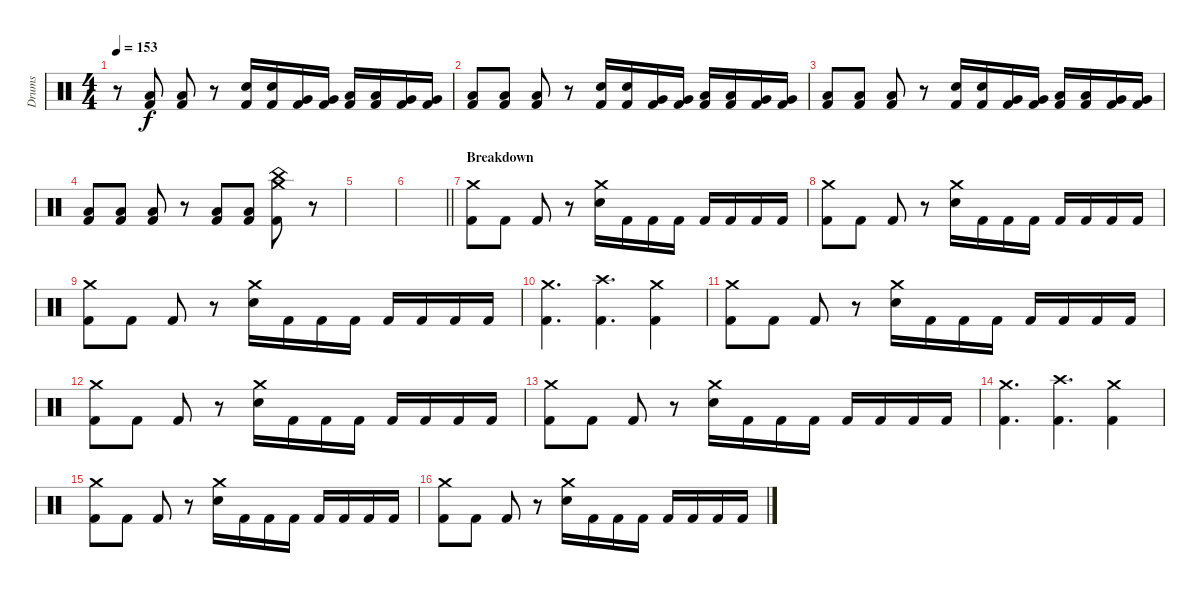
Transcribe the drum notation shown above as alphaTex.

\track ("Drums" "Drums") {instrument percussion}
\staff {score}
\articulation defaults
\ts (4 4)
\tempo 153
\clef neutral
\ks c
r.8{dy f} ("Low Floor Tom (hit)" "Kick (hit) 2").8 ("Low Floor Tom (hit)" "Kick (hit) 2").8 r.8 ("Electric Snare (hit)" "Kick (hit) 2").16 ("Electric Snare (hit)" "Kick (hit) 2").16 ("Very Low Tom (hit)" "Kick (hit) 2").16 ("Very Low Tom (hit)" "Kick (hit) 2").16 ("Low Tom (hit)" "Kick (hit) 2").16 ("Low Tom (hit)" "Kick (hit) 2").16 ("Very Low Tom (hit)" "Kick (hit) 2").16 ("Very Low Tom (hit)" "Kick (hit) 2").16 |
("Low Floor Tom (hit)" "Kick (hit) 2").8 ("Low Floor Tom (hit)" "Kick (hit) 2").8 ("Low Floor Tom (hit)" "Kick (hit) 2").8 r.8 ("Electric Snare (hit)" "Kick (hit) 2").16 ("Electric Snare (hit)" "Kick (hit) 2").16 ("Very Low Tom (hit)" "Kick (hit) 2").16 ("Very Low Tom (hit)" "Kick (hit) 2").16 ("Low Tom (hit)" "Kick (hit) 2").16 ("Low Tom (hit)" "Kick (hit) 2").16 ("Very Low Tom (hit)" "Kick (hit) 2").16 ("Very Low Tom (hit)" "Kick (hit) 2").16 |
("Low Floor Tom (hit)" "Kick (hit) 2").8 ("Low Floor Tom (hit)" "Kick (hit) 2").8 ("Low Floor Tom (hit)" "Kick (hit) 2").8 r.8 ("Electric Snare (hit)" "Kick (hit) 2").16 ("Electric Snare (hit)" "Kick (hit) 2").16 ("Very Low Tom (hit)" "Kick (hit) 2").16 ("Very Low Tom (hit)" "Kick (hit) 2").16 ("Low Tom (hit)" "Kick (hit) 2").16 ("Low Tom (hit)" "Kick (hit) 2").16 ("Very Low Tom (hit)" "Kick (hit) 2").16 ("Very Low Tom (hit)" "Kick (hit) 2").16 |
("Low Floor Tom (hit)" "Kick (hit) 2").8 ("Low Floor Tom (hit)" "Kick (hit) 2").8 ("Low Floor Tom (hit)" "Kick (hit) 2").8 r.8 ("Low Floor Tom (hit)" "Kick (hit) 2").8 ("Low Floor Tom (hit)" "Kick (hit) 2").8 ("China (hit)" "Crash medium (hit)" "Kick (hit) 2").8 r.8 |
|
\barLineRight lightlight
|
\section ("" "Breakdown")
("Crash medium (hit)" "Kick (hit) 2").8{volume 14} "Kick (hit) 2".8 "Kick (hit) 2".8 r.8 ("Crash medium (hit)" "Electric Snare (hit)").16 "Kick (hit) 2".16 "Kick (hit) 2".16 "Kick (hit) 2".16 "Kick (hit) 2".16 "Kick (hit) 2".16 "Kick (hit) 2".16 "Kick (hit) 2".16 |
("Crash medium (hit)" "Kick (hit) 2").8 "Kick (hit) 2".8 "Kick (hit) 2".8 r.8 ("Crash medium (hit)" "Electric Snare (hit)").16 "Kick (hit) 2".16 "Kick (hit) 2".16 "Kick (hit) 2".16 "Kick (hit) 2".16 "Kick (hit) 2".16 "Kick (hit) 2".16 "Kick (hit) 2".16 |
("Crash medium (hit)" "Kick (hit) 2").8 "Kick (hit) 2".8 "Kick (hit) 2".8 r.8 ("Crash medium (hit)" "Electric Snare (hit)").16 "Kick (hit) 2".16 "Kick (hit) 2".16 "Kick (hit) 2".16 "Kick (hit) 2".16 "Kick (hit) 2".16 "Kick (hit) 2".16 "Kick (hit) 2".16 |
("Crash medium (hit)" "Kick (hit) 2").4{d} ("Crash high (hit)" "Kick (hit) 2").4{d} ("Crash medium (hit)" "Kick (hit) 2").4 |
("Crash medium (hit)" "Kick (hit) 2").8 "Kick (hit) 2".8 "Kick (hit) 2".8 r.8 ("Crash medium (hit)" "Electric Snare (hit)").16 "Kick (hit) 2".16 "Kick (hit) 2".16 "Kick (hit) 2".16 "Kick (hit) 2".16 "Kick (hit) 2".16 "Kick (hit) 2".16 "Kick (hit) 2".16 |
("Crash medium (hit)" "Kick (hit) 2").8 "Kick (hit) 2".8 "Kick (hit) 2".8 r.8 ("Crash medium (hit)" "Electric Snare (hit)").16 "Kick (hit) 2".16 "Kick (hit) 2".16 "Kick (hit) 2".16 "Kick (hit) 2".16 "Kick (hit) 2".16 "Kick (hit) 2".16 "Kick (hit) 2".16 |
("Crash medium (hit)" "Kick (hit) 2").8 "Kick (hit) 2".8 "Kick (hit) 2".8 r.8 ("Crash medium (hit)" "Electric Snare (hit)").16 "Kick (hit) 2".16 "Kick (hit) 2".16 "Kick (hit) 2".16 "Kick (hit) 2".16 "Kick (hit) 2".16 "Kick (hit) 2".16 "Kick (hit) 2".16 |
("Crash medium (hit)" "Kick (hit) 2").4{d} ("Crash high (hit)" "Kick (hit) 2").4{d} ("Crash medium (hit)" "Kick (hit) 2").4 |
("Crash medium (hit)" "Kick (hit) 2").8 "Kick (hit) 2".8 "Kick (hit) 2".8 r.8 ("Crash medium (hit)" "Electric Snare (hit)").16 "Kick (hit) 2".16 "Kick (hit) 2".16 "Kick (hit) 2".16 "Kick (hit) 2".16 "Kick (hit) 2".16 "Kick (hit) 2".16 "Kick (hit) 2".16 |
("Crash medium (hit)" "Kick (hit) 2").8 "Kick (hit) 2".8 "Kick (hit) 2".8 r.8 ("Crash medium (hit)" "Electric Snare (hit)").16 "Kick (hit) 2".16 "Kick (hit) 2".16 "Kick (hit) 2".16 "Kick (hit) 2".16 "Kick (hit) 2".16 "Kick (hit) 2".16 "Kick (hit) 2".16
